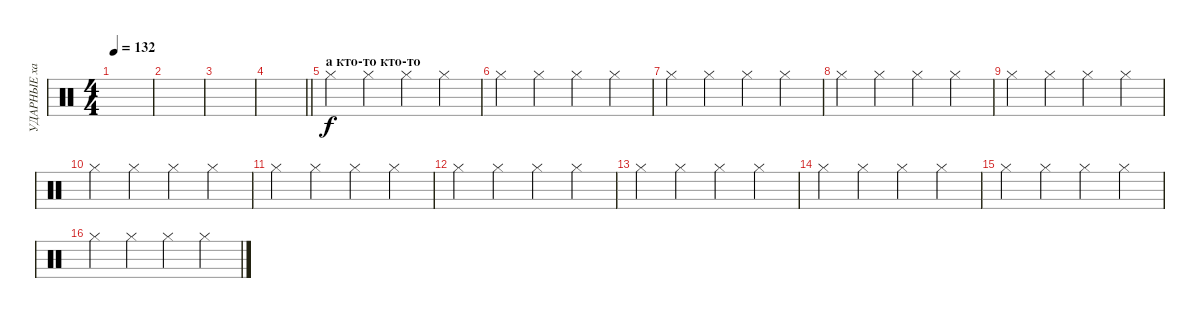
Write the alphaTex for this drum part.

\track ("УДАРНЫЕ хай хэт" "УДАРНЫЕ ха") {instrument percussion}
\staff {score}
\articulation defaults
\ts (4 4)
\tempo 132
\clef neutral
\ks c
|
|
|
\barLineRight lightlight
|
\section ("" "а кто-то кто-то")
"Hi-Hat (closed)".4 "Hi-Hat (closed)".4 "Hi-Hat (closed)".4 "Hi-Hat (closed)".4 |
"Hi-Hat (closed)".4 "Hi-Hat (closed)".4 "Hi-Hat (closed)".4 "Hi-Hat (closed)".4 |
"Hi-Hat (closed)".4 "Hi-Hat (closed)".4 "Hi-Hat (closed)".4 "Hi-Hat (closed)".4 |
"Hi-Hat (closed)".4 "Hi-Hat (closed)".4 "Hi-Hat (closed)".4 "Hi-Hat (closed)".4 |
"Hi-Hat (closed)".4 "Hi-Hat (closed)".4 "Hi-Hat (closed)".4 "Hi-Hat (closed)".4 |
"Hi-Hat (closed)".4 "Hi-Hat (closed)".4 "Hi-Hat (closed)".4 "Hi-Hat (closed)".4 |
"Hi-Hat (closed)".4 "Hi-Hat (closed)".4 "Hi-Hat (closed)".4 "Hi-Hat (closed)".4 |
"Hi-Hat (closed)".4 "Hi-Hat (closed)".4 "Hi-Hat (closed)".4 "Hi-Hat (closed)".4 |
"Hi-Hat (closed)".4 "Hi-Hat (closed)".4 "Hi-Hat (closed)".4 "Hi-Hat (closed)".4 |
"Hi-Hat (closed)".4 "Hi-Hat (closed)".4 "Hi-Hat (closed)".4 "Hi-Hat (closed)".4 |
"Hi-Hat (closed)".4 "Hi-Hat (closed)".4 "Hi-Hat (closed)".4 "Hi-Hat (closed)".4 |
"Hi-Hat (closed)".4 "Hi-Hat (closed)".4 "Hi-Hat (closed)".4 "Hi-Hat (closed)".4
